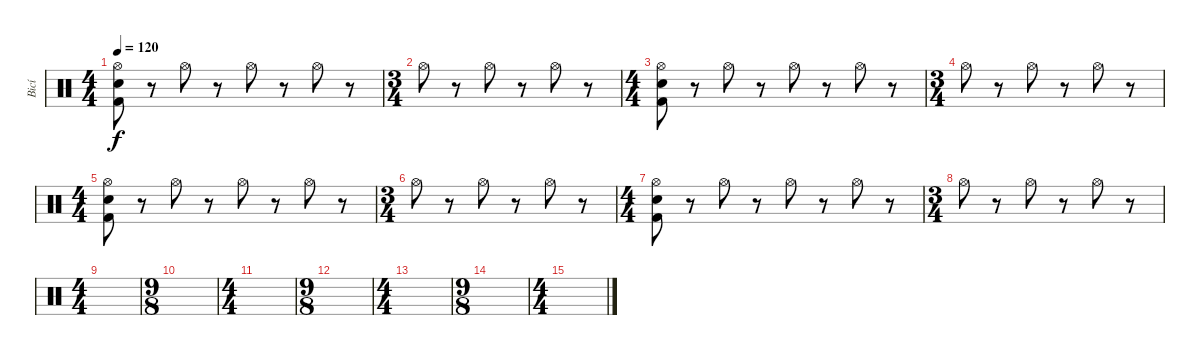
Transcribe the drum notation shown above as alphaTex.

\track ("Bicí" "Bicí") {instrument percussion}
\staff {score}
\articulation defaults
\ts (4 4)
\tempo 120
\clef neutral
\ks c
("Hi-Hat (open)" "Electric Snare (hit)" "Kick (hit) 2").8{dy f} r.8 "Hi-Hat (open)".8 r.8 "Hi-Hat (open)".8 r.8 "Hi-Hat (open)".8 r.8 |
\ts (3 4)
"Hi-Hat (open)".8 r.8 "Hi-Hat (open)".8 r.8 "Hi-Hat (open)".8 r.8 |
\ts (4 4)
("Hi-Hat (open)" "Electric Snare (hit)" "Kick (hit) 2").8 r.8 "Hi-Hat (open)".8 r.8 "Hi-Hat (open)".8 r.8 "Hi-Hat (open)".8 r.8 |
\ts (3 4)
"Hi-Hat (open)".8 r.8 "Hi-Hat (open)".8 r.8 "Hi-Hat (open)".8 r.8 |
\ts (4 4)
("Hi-Hat (open)" "Electric Snare (hit)" "Kick (hit) 2").8 r.8 "Hi-Hat (open)".8 r.8 "Hi-Hat (open)".8 r.8 "Hi-Hat (open)".8 r.8 |
\ts (3 4)
"Hi-Hat (open)".8 r.8 "Hi-Hat (open)".8 r.8 "Hi-Hat (open)".8 r.8 |
\ts (4 4)
("Hi-Hat (open)" "Electric Snare (hit)" "Kick (hit) 2").8 r.8 "Hi-Hat (open)".8 r.8 "Hi-Hat (open)".8 r.8 "Hi-Hat (open)".8 r.8 |
\ts (3 4)
"Hi-Hat (open)".8 r.8 "Hi-Hat (open)".8 r.8 "Hi-Hat (open)".8 r.8 |
\ts (4 4)
|
\ts (9 8)
|
\ts (4 4)
|
\ts (9 8)
|
\ts (4 4)
|
\ts (9 8)
|
\ts (4 4)
